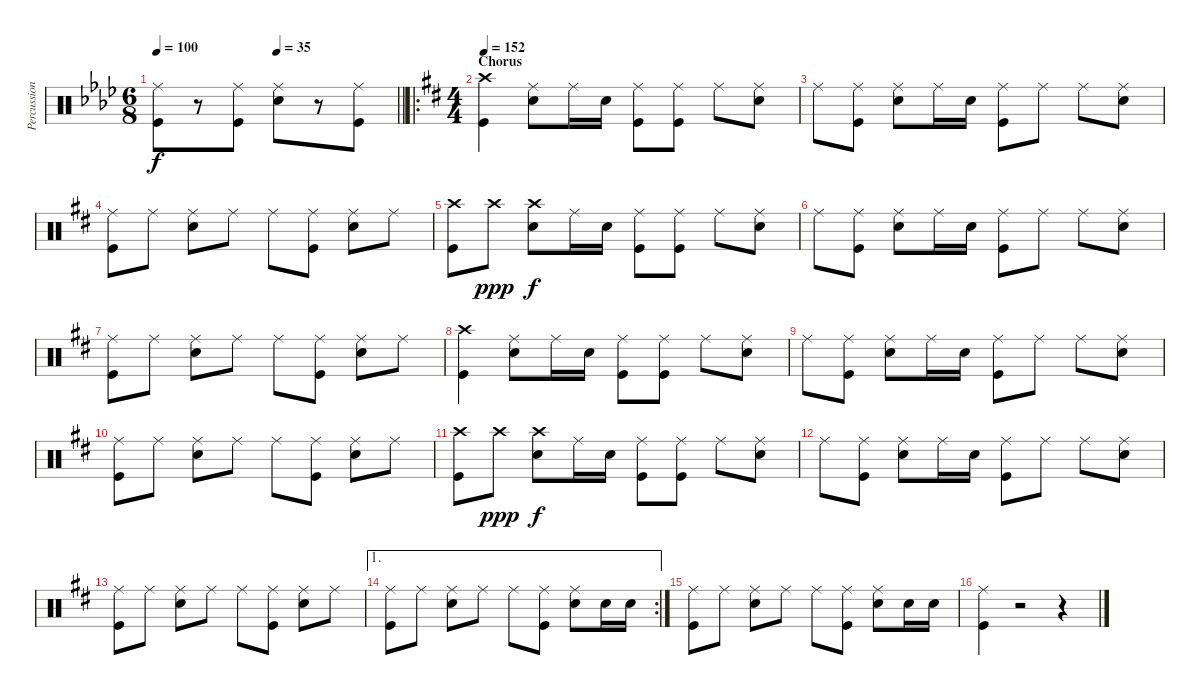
\track ("Percussion" "Percussion") {instrument percussion}
\staff {score}
\articulation defaults
\ts (6 8)
\tempo 100
\tempo (35 0.5)
\clef neutral
\barLineRight lightlight
\ks fminor
("Ride (middle)" "Kick (hit)").8{dy f} r.8 ("Ride (middle)" "Kick (hit)").8 ("Ride (middle)" "Snare (hit) 2").8 r.8 ("Ride (middle)" "Kick (hit)").8 |
\ro
\ts (4 4)
\section ("" "Chorus")
\tempo 152
\ks d
("Crash high (hit)" "Kick (hit)").4 ("Ride (middle)" "Snare (hit) 2").8 "Ride (middle)".16 "Snare (hit) 2".16 ("Ride (middle)" "Kick (hit)").8 ("Ride (middle)" "Kick (hit)").8 "Ride (middle)".8 ("Ride (middle)" "Snare (hit) 2").8 |
"Ride (middle)".8 ("Ride (middle)" "Kick (hit)").8 ("Ride (middle)" "Snare (hit) 2").8 "Ride (middle)".16 "Snare (hit) 2".16 ("Ride (middle)" "Kick (hit)").8 "Ride (middle)".8 "Ride (middle)".8 ("Ride (middle)" "Snare (hit) 2").8 |
("Ride (middle)" "Kick (hit)").8 "Ride (middle)".8 ("Ride (middle)" "Snare (hit) 2").8 "Ride (middle)".8 "Ride (middle)".8 ("Ride (middle)" "Kick (hit)").8 ("Ride (middle)" "Snare (hit) 2").8 "Ride (middle)".8 |
("Crash high (hit)" "Kick (hit)").8 "Crash high (hit)".8{dy ppp} ("Crash high (hit)" "Snare (hit) 2").8{dy f} "Ride (middle)".16 "Snare (hit) 2".16 ("Ride (middle)" "Kick (hit)").8 ("Ride (middle)" "Kick (hit)").8 "Ride (middle)".8 ("Ride (middle)" "Snare (hit) 2").8 |
"Ride (middle)".8 ("Ride (middle)" "Kick (hit)").8 ("Ride (middle)" "Snare (hit) 2").8 "Ride (middle)".16 "Snare (hit) 2".16 ("Ride (middle)" "Kick (hit)").8 "Ride (middle)".8 "Ride (middle)".8 ("Ride (middle)" "Snare (hit) 2").8 |
("Ride (middle)" "Kick (hit)").8 "Ride (middle)".8 ("Ride (middle)" "Snare (hit) 2").8 "Ride (middle)".8 "Ride (middle)".8 ("Ride (middle)" "Kick (hit)").8 ("Ride (middle)" "Snare (hit) 2").8 "Ride (middle)".8 |
("Crash high (hit)" "Kick (hit)").4 ("Ride (middle)" "Snare (hit) 2").8 "Ride (middle)".16 "Snare (hit) 2".16 ("Ride (middle)" "Kick (hit)").8 ("Ride (middle)" "Kick (hit)").8 "Ride (middle)".8 ("Ride (middle)" "Snare (hit) 2").8 |
"Ride (middle)".8 ("Ride (middle)" "Kick (hit)").8 ("Ride (middle)" "Snare (hit) 2").8 "Ride (middle)".16 "Snare (hit) 2".16 ("Ride (middle)" "Kick (hit)").8 "Ride (middle)".8 "Ride (middle)".8 ("Ride (middle)" "Snare (hit) 2").8 |
("Ride (middle)" "Kick (hit)").8 "Ride (middle)".8 ("Ride (middle)" "Snare (hit) 2").8 "Ride (middle)".8 "Ride (middle)".8 ("Ride (middle)" "Kick (hit)").8 ("Ride (middle)" "Snare (hit) 2").8 "Ride (middle)".8 |
("Crash high (hit)" "Kick (hit)").8 "Crash high (hit)".8{dy ppp} ("Crash high (hit)" "Snare (hit) 2").8{dy f} "Ride (middle)".16 "Snare (hit) 2".16 ("Ride (middle)" "Kick (hit)").8 ("Ride (middle)" "Kick (hit)").8 "Ride (middle)".8 ("Ride (middle)" "Snare (hit) 2").8 |
"Ride (middle)".8 ("Ride (middle)" "Kick (hit)").8 ("Ride (middle)" "Snare (hit) 2").8 "Ride (middle)".16 "Snare (hit) 2".16 ("Ride (middle)" "Kick (hit)").8 "Ride (middle)".8 "Ride (middle)".8 ("Ride (middle)" "Snare (hit) 2").8 |
("Ride (middle)" "Kick (hit)").8 "Ride (middle)".8 ("Ride (middle)" "Snare (hit) 2").8 "Ride (middle)".8 "Ride (middle)".8 ("Ride (middle)" "Kick (hit)").8 ("Ride (middle)" "Snare (hit) 2").8 "Ride (middle)".8 |
\ae 1
\rc 2
("Ride (middle)" "Kick (hit)").8 "Ride (middle)".8 ("Ride (middle)" "Snare (hit) 2").8 "Ride (middle)".8 "Ride (middle)".8 ("Ride (middle)" "Kick (hit)").8 ("Ride (middle)" "Snare (hit) 2").8 "Snare (hit) 2".16 "Snare (hit) 2".16 |
("Ride (middle)" "Kick (hit)").8 "Ride (middle)".8 ("Ride (middle)" "Snare (hit) 2").8 "Ride (middle)".8 "Ride (middle)".8 ("Ride (middle)" "Kick (hit)").8 ("Ride (middle)" "Snare (hit) 2").8 "Snare (hit) 2".16 "Snare (hit) 2".16 |
("Ride (middle)" "Kick (hit)").4 r.2 r.4
